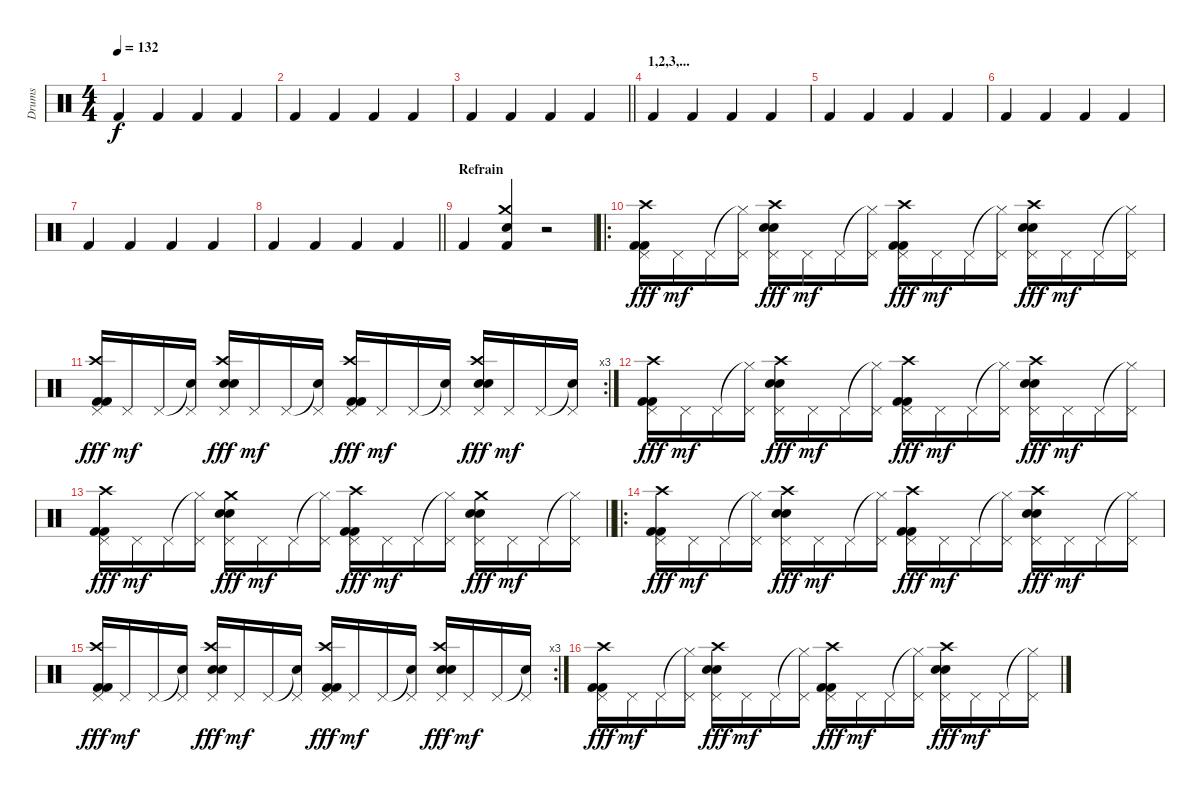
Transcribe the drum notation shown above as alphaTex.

\track ("Drums" "Drums") {instrument percussion}
\staff {score}
\articulation defaults
\ts (4 4)
\tempo 132
\clef neutral
\ks c "Kick (hit) 2".4{dy f} "Kick (hit) 2".4 "Kick (hit) 2".4 "Kick (hit) 2".4
|
"Kick (hit) 2".4 "Kick (hit) 2".4 "Kick (hit) 2".4 "Kick (hit) 2".4 |
\barLineRight lightlight "Kick (hit) 2".4 "Kick (hit) 2".4 "Kick (hit) 2".4 "Kick (hit) 2".4
|
\section ("" "1,2,3,...")
"Kick (hit) 2".4 "Kick (hit) 2".4 "Kick (hit) 2".4 "Kick (hit) 2".4 |
"Kick (hit) 2".4 "Kick (hit) 2".4 "Kick (hit) 2".4 "Kick (hit) 2".4 |
"Kick (hit) 2".4 "Kick (hit) 2".4 "Kick (hit) 2".4 "Kick (hit) 2".4 |
"Kick (hit) 2".4 "Kick (hit) 2".4 "Kick (hit) 2".4 "Kick (hit) 2".4 |
\barLineRight lightlight "Kick (hit) 2".4 "Kick (hit) 2".4 "Kick (hit) 2".4 "Kick (hit) 2".4
|
\section ("" "Refrain")
"Kick (hit) 2".4 ("Crash medium (hit)" "Electric Snare (hit)" "Kick (hit) 2").4 r.2 |
\ro
("Crash high (hit)" "Pedal Hi-Hat (hit)" "Kick (hit) 2" "Kick (hit) 2").16{dy fff} "Pedal Hi-Hat (hit)".16{dy mf} "Pedal Hi-Hat (hit)".16 ("Hi-Hat (closed)"{t} "Pedal Hi-Hat (hit)").16 ("Crash high (hit)" "Pedal Hi-Hat (hit)" "Electric Snare (hit)" "Electric Snare (hit)").16{dy fff} "Pedal Hi-Hat (hit)".16{dy mf} "Pedal Hi-Hat (hit)".16 ("Hi-Hat (closed)"{t} "Pedal Hi-Hat (hit)").16 ("Crash high (hit)" "Pedal Hi-Hat (hit)" "Kick (hit) 2" "Kick (hit) 2").16{dy fff} "Pedal Hi-Hat (hit)".16{dy mf} "Pedal Hi-Hat (hit)".16 ("Hi-Hat (closed)"{t} "Pedal Hi-Hat (hit)").16 ("Crash high (hit)" "Pedal Hi-Hat (hit)" "Electric Snare (hit)" "Electric Snare (hit)").16{dy fff} "Pedal Hi-Hat (hit)".16{dy mf} "Pedal Hi-Hat (hit)".16 ("Hi-Hat (closed)"{t} "Pedal Hi-Hat (hit)").16 |
\rc 3
("Crash high (hit)" "Pedal Hi-Hat (hit)" "Kick (hit) 2" "Kick (hit) 2").16{dy fff} "Pedal Hi-Hat (hit)".16{dy mf} "Pedal Hi-Hat (hit)".16 ("Snare (hit)"{t} "Pedal Hi-Hat (hit)").16 ("Crash high (hit)" "Pedal Hi-Hat (hit)" "Electric Snare (hit)" "Electric Snare (hit)").16{dy fff} "Pedal Hi-Hat (hit)".16{dy mf} "Pedal Hi-Hat (hit)".16 ("Snare (hit)"{t} "Pedal Hi-Hat (hit)").16 ("Crash high (hit)" "Pedal Hi-Hat (hit)" "Kick (hit) 2" "Kick (hit) 2").16{dy fff} "Pedal Hi-Hat (hit)".16{dy mf} "Pedal Hi-Hat (hit)".16 ("Snare (hit)"{t} "Pedal Hi-Hat (hit)").16 ("Crash high (hit)" "Pedal Hi-Hat (hit)" "Electric Snare (hit)" "Electric Snare (hit)").16{dy fff} "Pedal Hi-Hat (hit)".16{dy mf} "Pedal Hi-Hat (hit)".16 ("Snare (hit)"{t} "Pedal Hi-Hat (hit)").16 |
("Crash high (hit)" "Pedal Hi-Hat (hit)" "Kick (hit) 2" "Kick (hit) 2").16{dy fff} "Pedal Hi-Hat (hit)".16{dy mf} "Pedal Hi-Hat (hit)".16 ("Hi-Hat (closed)"{t} "Pedal Hi-Hat (hit)").16 ("Crash high (hit)" "Pedal Hi-Hat (hit)" "Electric Snare (hit)" "Electric Snare (hit)").16{dy fff} "Pedal Hi-Hat (hit)".16{dy mf} "Pedal Hi-Hat (hit)".16 ("Hi-Hat (closed)"{t} "Pedal Hi-Hat (hit)").16 ("Crash high (hit)" "Pedal Hi-Hat (hit)" "Kick (hit) 2" "Kick (hit) 2").16{dy fff} "Pedal Hi-Hat (hit)".16{dy mf} "Pedal Hi-Hat (hit)".16 ("Hi-Hat (closed)"{t} "Pedal Hi-Hat (hit)").16 ("Crash high (hit)" "Pedal Hi-Hat (hit)" "Electric Snare (hit)" "Electric Snare (hit)").16{dy fff} "Pedal Hi-Hat (hit)".16{dy mf} "Pedal Hi-Hat (hit)".16 ("Hi-Hat (closed)"{t} "Pedal Hi-Hat (hit)").16 |
\barLineRight lightlight
("Crash high (hit)" "Pedal Hi-Hat (hit)" "Kick (hit) 2" "Kick (hit) 2").16{dy fff} "Pedal Hi-Hat (hit)".16{dy mf} "Pedal Hi-Hat (hit)".16 ("Hi-Hat (closed)"{t} "Pedal Hi-Hat (hit)").16 ("Crash medium (hit)" "Pedal Hi-Hat (hit)" "Electric Snare (hit)" "Electric Snare (hit)").16{dy fff} "Pedal Hi-Hat (hit)".16{dy mf} "Pedal Hi-Hat (hit)".16 ("Hi-Hat (closed)"{t} "Pedal Hi-Hat (hit)").16 ("Crash high (hit)" "Pedal Hi-Hat (hit)" "Kick (hit) 2" "Kick (hit) 2").16{dy fff} "Pedal Hi-Hat (hit)".16{dy mf} "Pedal Hi-Hat (hit)".16 ("Hi-Hat (closed)"{t} "Pedal Hi-Hat (hit)").16 ("Crash medium (hit)" "Pedal Hi-Hat (hit)" "Electric Snare (hit)" "Electric Snare (hit)").16{dy fff} "Pedal Hi-Hat (hit)".16{dy mf} "Pedal Hi-Hat (hit)".16 ("Hi-Hat (closed)"{t} "Pedal Hi-Hat (hit)").16 |
\ro
("Crash high (hit)" "Pedal Hi-Hat (hit)" "Kick (hit) 2" "Kick (hit) 2").16{dy fff} "Pedal Hi-Hat (hit)".16{dy mf} "Pedal Hi-Hat (hit)".16 ("Hi-Hat (closed)"{t} "Pedal Hi-Hat (hit)").16 ("Crash high (hit)" "Pedal Hi-Hat (hit)" "Electric Snare (hit)" "Electric Snare (hit)").16{dy fff} "Pedal Hi-Hat (hit)".16{dy mf} "Pedal Hi-Hat (hit)".16 ("Hi-Hat (closed)"{t} "Pedal Hi-Hat (hit)").16 ("Crash high (hit)" "Pedal Hi-Hat (hit)" "Kick (hit) 2" "Kick (hit) 2").16{dy fff} "Pedal Hi-Hat (hit)".16{dy mf} "Pedal Hi-Hat (hit)".16 ("Hi-Hat (closed)"{t} "Pedal Hi-Hat (hit)").16 ("Crash high (hit)" "Pedal Hi-Hat (hit)" "Electric Snare (hit)" "Electric Snare (hit)").16{dy fff} "Pedal Hi-Hat (hit)".16{dy mf} "Pedal Hi-Hat (hit)".16 ("Hi-Hat (closed)"{t} "Pedal Hi-Hat (hit)").16 |
\rc 3
("Crash high (hit)" "Pedal Hi-Hat (hit)" "Kick (hit) 2" "Kick (hit) 2").16{dy fff} "Pedal Hi-Hat (hit)".16{dy mf} "Pedal Hi-Hat (hit)".16 ("Snare (hit)"{t} "Pedal Hi-Hat (hit)").16 ("Crash high (hit)" "Pedal Hi-Hat (hit)" "Electric Snare (hit)" "Electric Snare (hit)").16{dy fff} "Pedal Hi-Hat (hit)".16{dy mf} "Pedal Hi-Hat (hit)".16 ("Snare (hit)"{t} "Pedal Hi-Hat (hit)").16 ("Crash high (hit)" "Pedal Hi-Hat (hit)" "Kick (hit) 2" "Kick (hit) 2").16{dy fff} "Pedal Hi-Hat (hit)".16{dy mf} "Pedal Hi-Hat (hit)".16 ("Snare (hit)"{t} "Pedal Hi-Hat (hit)").16 ("Crash high (hit)" "Pedal Hi-Hat (hit)" "Electric Snare (hit)" "Electric Snare (hit)").16{dy fff} "Pedal Hi-Hat (hit)".16{dy mf} "Pedal Hi-Hat (hit)".16 ("Snare (hit)"{t} "Pedal Hi-Hat (hit)").16 |
("Crash high (hit)" "Pedal Hi-Hat (hit)" "Kick (hit) 2" "Kick (hit) 2").16{dy fff} "Pedal Hi-Hat (hit)".16{dy mf} "Pedal Hi-Hat (hit)".16 ("Hi-Hat (closed)"{t} "Pedal Hi-Hat (hit)").16 ("Crash high (hit)" "Pedal Hi-Hat (hit)" "Electric Snare (hit)" "Electric Snare (hit)").16{dy fff} "Pedal Hi-Hat (hit)".16{dy mf} "Pedal Hi-Hat (hit)".16 ("Hi-Hat (closed)"{t} "Pedal Hi-Hat (hit)").16 ("Crash high (hit)" "Pedal Hi-Hat (hit)" "Kick (hit) 2" "Kick (hit) 2").16{dy fff} "Pedal Hi-Hat (hit)".16{dy mf} "Pedal Hi-Hat (hit)".16 ("Hi-Hat (closed)"{t} "Pedal Hi-Hat (hit)").16 ("Crash high (hit)" "Pedal Hi-Hat (hit)" "Electric Snare (hit)" "Electric Snare (hit)").16{dy fff} "Pedal Hi-Hat (hit)".16{dy mf} "Pedal Hi-Hat (hit)".16 ("Hi-Hat (closed)"{t} "Pedal Hi-Hat (hit)").16
